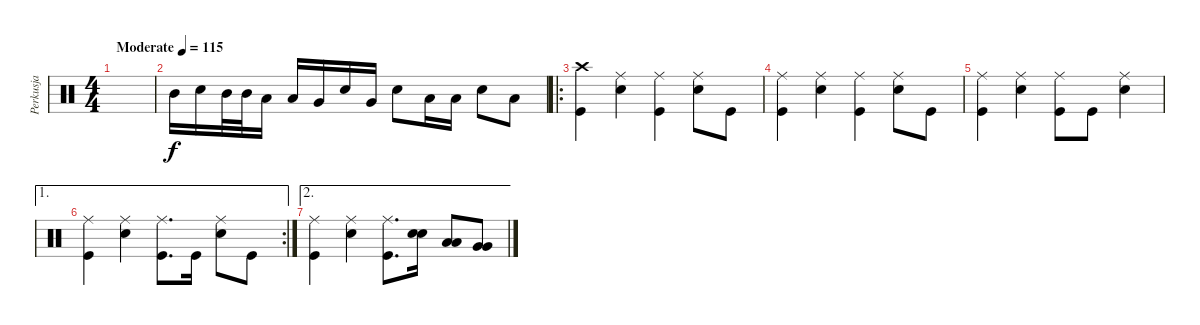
\track ("Perkusja" "Perkusja") {instrument percussion}
\staff {score}
\articulation defaults
\ts (4 4)
\tempo (115 "Moderate")
\clef neutral
\ks c
|
"Mid Tom (hit)".16 "Snare (hit) 2".16 "Mid Tom (hit)".32 "Mid Tom (hit)".32 "Low Tom (hit)".16 "Low Tom (hit)".16 "Very Low Tom (hit)".16 "Snare (hit) 2".16 "Very Low Tom (hit)".16 "Snare (hit) 2".8 "Low Floor Tom (hit)".16 "Low Floor Tom (hit)".16 "Snare (hit) 2".8 "Low Floor Tom (hit)".8 |
\ro
("Kick (hit)" "Crash high (hit)").4 ("Ride (middle)" "Snare (hit) 2").4 ("Ride (middle)" "Kick (hit)").4 ("Ride (middle)" "Snare (hit) 2").8 "Kick (hit)".8 |
("Kick (hit)" "Ride (middle)").4 ("Ride (middle)" "Snare (hit) 2").4 ("Ride (middle)" "Kick (hit)").4 ("Ride (middle)" "Snare (hit) 2").8 "Kick (hit)".8 |
("Ride (middle)" "Kick (hit)").4 ("Ride (middle)" "Snare (hit) 2").4 ("Kick (hit)" "Ride (middle)").8 "Kick (hit)".8 ("Ride (middle)" "Snare (hit) 2").4 |
\ae 1
\rc 2
("Ride (middle)" "Kick (hit)").4 ("Ride (middle)" "Snare (hit) 2").4 ("Ride (middle)" "Kick (hit)").8{d} "Kick (hit)".16 ("Ride (middle)" "Snare (hit) 2").8 "Kick (hit)".8 |
\ae 2
("Ride (middle)" "Kick (hit)").4 ("Ride (middle)" "Snare (hit) 2").4 ("Ride (middle)" "Kick (hit)").8{d} ("Snare (hit) 2" "Snare (hit) 2").16 ("Low Tom (hit)" "Low Tom (hit)").8 ("Very Low Tom (hit)" "Very Low Tom (hit)").8
